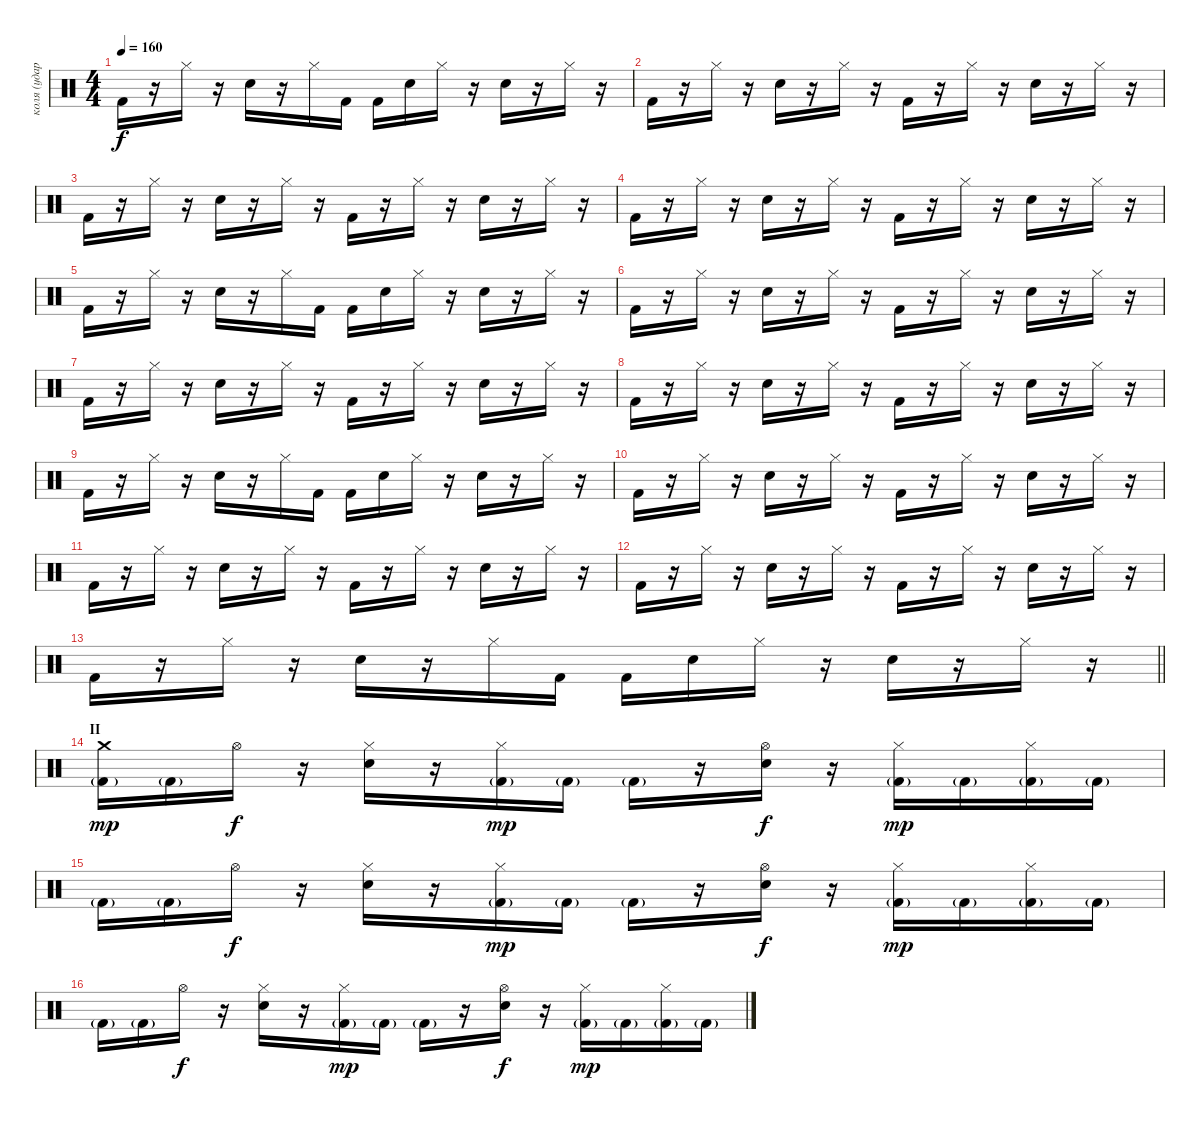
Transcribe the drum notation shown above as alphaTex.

\track ("коля (ударные)" "коля (удар") {instrument percussion}
\staff {score}
\articulation defaults
\ts (4 4)
\tempo 160
\clef neutral
\ks c "Kick (hit) 2".16{dy f}
r.16 "Hi-Hat (closed)".16 r.16 "Snare (hit) 2".16 r.16 "Hi-Hat (closed)".16 "Kick (hit) 2".16 "Kick (hit) 2".16 "Snare (hit) 2".16 "Hi-Hat (closed)".16 r.16 "Snare (hit) 2".16 r.16 "Hi-Hat (closed)".16 r.16 |
"Kick (hit) 2".16 r.16 "Hi-Hat (closed)".16 r.16 "Snare (hit) 2".16 r.16 "Hi-Hat (closed)".16 r.16 "Kick (hit) 2".16 r.16 "Hi-Hat (closed)".16 r.16 "Snare (hit) 2".16 r.16 "Hi-Hat (closed)".16 r.16 |
"Kick (hit) 2".16 r.16 "Hi-Hat (closed)".16 r.16 "Snare (hit) 2".16 r.16 "Hi-Hat (closed)".16 r.16 "Kick (hit) 2".16 r.16 "Hi-Hat (closed)".16 r.16 "Snare (hit) 2".16 r.16 "Hi-Hat (closed)".16 r.16 |
"Kick (hit) 2".16 r.16 "Hi-Hat (closed)".16 r.16 "Snare (hit) 2".16 r.16 "Hi-Hat (closed)".16 r.16 "Kick (hit) 2".16 r.16 "Hi-Hat (closed)".16 r.16 "Snare (hit) 2".16 r.16 "Hi-Hat (closed)".16 r.16 |
"Kick (hit) 2".16 r.16 "Hi-Hat (closed)".16 r.16 "Snare (hit) 2".16 r.16 "Hi-Hat (closed)".16 "Kick (hit) 2".16 "Kick (hit) 2".16 "Snare (hit) 2".16 "Hi-Hat (closed)".16 r.16 "Snare (hit) 2".16 r.16 "Hi-Hat (closed)".16 r.16 |
"Kick (hit) 2".16 r.16 "Hi-Hat (closed)".16 r.16 "Snare (hit) 2".16 r.16 "Hi-Hat (closed)".16 r.16 "Kick (hit) 2".16 r.16 "Hi-Hat (closed)".16 r.16 "Snare (hit) 2".16 r.16 "Hi-Hat (closed)".16 r.16 |
"Kick (hit) 2".16 r.16 "Hi-Hat (closed)".16 r.16 "Snare (hit) 2".16 r.16 "Hi-Hat (closed)".16 r.16 "Kick (hit) 2".16 r.16 "Hi-Hat (closed)".16 r.16 "Snare (hit) 2".16 r.16 "Hi-Hat (closed)".16 r.16 |
"Kick (hit) 2".16 r.16 "Hi-Hat (closed)".16 r.16 "Snare (hit) 2".16 r.16 "Hi-Hat (closed)".16 r.16 "Kick (hit) 2".16 r.16 "Hi-Hat (closed)".16 r.16 "Snare (hit) 2".16 r.16 "Hi-Hat (closed)".16 r.16 |
"Kick (hit) 2".16 r.16 "Hi-Hat (closed)".16 r.16 "Snare (hit) 2".16 r.16 "Hi-Hat (closed)".16 "Kick (hit) 2".16 "Kick (hit) 2".16 "Snare (hit) 2".16 "Hi-Hat (closed)".16 r.16 "Snare (hit) 2".16 r.16 "Hi-Hat (closed)".16 r.16 |
"Kick (hit) 2".16 r.16 "Hi-Hat (closed)".16 r.16 "Snare (hit) 2".16 r.16 "Hi-Hat (closed)".16 r.16 "Kick (hit) 2".16 r.16 "Hi-Hat (closed)".16 r.16 "Snare (hit) 2".16 r.16 "Hi-Hat (closed)".16 r.16 |
"Kick (hit) 2".16 r.16 "Hi-Hat (closed)".16 r.16 "Snare (hit) 2".16 r.16 "Hi-Hat (closed)".16 r.16 "Kick (hit) 2".16 r.16 "Hi-Hat (closed)".16 r.16 "Snare (hit) 2".16 r.16 "Hi-Hat (closed)".16 r.16 |
"Kick (hit) 2".16 r.16 "Hi-Hat (closed)".16 r.16 "Snare (hit) 2".16 r.16 "Hi-Hat (closed)".16 r.16 "Kick (hit) 2".16 r.16 "Hi-Hat (closed)".16 r.16 "Snare (hit) 2".16 r.16 "Hi-Hat (closed)".16 r.16 |
\barLineRight lightlight "Kick (hit) 2".16
r.16 "Hi-Hat (closed)".16 r.16 "Snare (hit) 2".16 r.16 "Hi-Hat (closed)".16 "Kick (hit) 2".16 "Kick (hit) 2".16 "Snare (hit) 2".16 "Hi-Hat (closed)".16 r.16 "Snare (hit) 2".16 r.16 "Hi-Hat (closed)".16 r.16 |
\section ("" "II")
("Kick (hit) 2"{g} "Crash medium (hit)").16{dy mp} "Kick (hit) 2"{g}.16 "Hi-Hat (open)".16{dy f} r.16 ("Snare (hit) 2" "Hi-Hat (closed)").16 r.16 ("Kick (hit) 2"{g} "Hi-Hat (closed)").16{dy mp} "Kick (hit) 2"{g}.16 "Kick (hit) 2"{g}.16 r.16 ("Snare (hit) 2" "Hi-Hat (open)").16{dy f} r.16 ("Kick (hit) 2"{g} "Hi-Hat (closed)").16{dy mp} "Kick (hit) 2"{g}.16 ("Kick (hit) 2"{g} "Hi-Hat (closed)").16 "Kick (hit) 2"{g}.16 |
"Kick (hit) 2"{g}.16 "Kick (hit) 2"{g}.16 "Hi-Hat (open)".16{dy f} r.16 ("Snare (hit) 2" "Hi-Hat (closed)").16 r.16 ("Kick (hit) 2"{g} "Hi-Hat (closed)").16{dy mp} "Kick (hit) 2"{g}.16 "Kick (hit) 2"{g}.16 r.16 ("Snare (hit) 2" "Hi-Hat (open)").16{dy f} r.16 ("Kick (hit) 2"{g} "Hi-Hat (closed)").16{dy mp} "Kick (hit) 2"{g}.16 ("Kick (hit) 2"{g} "Hi-Hat (closed)").16 "Kick (hit) 2"{g}.16 |
"Kick (hit) 2"{g}.16 "Kick (hit) 2"{g}.16 "Hi-Hat (open)".16{dy f} r.16 ("Snare (hit) 2" "Hi-Hat (closed)").16 r.16 ("Kick (hit) 2"{g} "Hi-Hat (closed)").16{dy mp} "Kick (hit) 2"{g}.16 "Kick (hit) 2"{g}.16 r.16 ("Snare (hit) 2" "Hi-Hat (open)").16{dy f} r.16 ("Kick (hit) 2"{g} "Hi-Hat (closed)").16{dy mp} "Kick (hit) 2"{g}.16 ("Kick (hit) 2"{g} "Hi-Hat (closed)").16 "Kick (hit) 2"{g}.16
